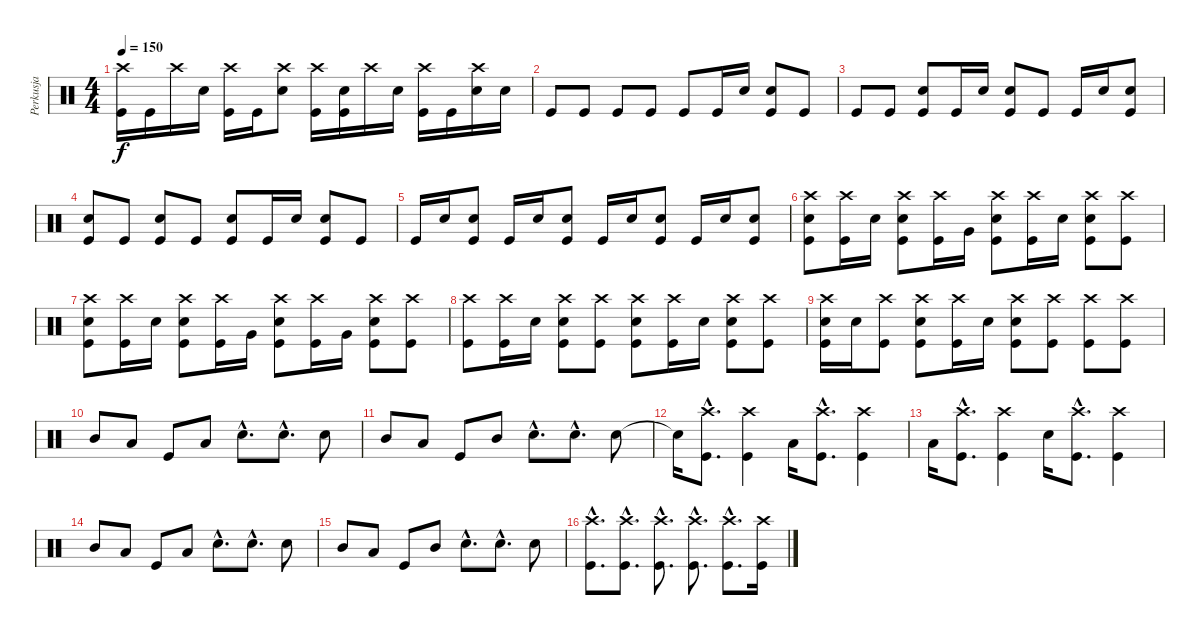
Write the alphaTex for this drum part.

\track ("Perkusja" "Perkusja") {instrument percussion}
\staff {score}
\articulation defaults
\ts (4 4)
\tempo 150
\clef neutral
\ks c
("Crash high (hit)" "Kick (hit)").16{dy f} "Kick (hit)".16 "Crash high (hit)".16 "Snare (hit) 2".16 ("Crash high (hit)" "Kick (hit)").16 "Kick (hit)".16 ("Crash high (hit)" "Snare (hit) 2").8 ("Crash high (hit)" "Kick (hit)").16 ("Snare (hit) 2" "Kick (hit)").16 "Crash high (hit)".16 "Snare (hit) 2".16 ("Crash high (hit)" "Kick (hit)").16 "Kick (hit)".16 ("Crash high (hit)" "Snare (hit) 2").16 "Snare (hit) 2".16 |
"Kick (hit)".8 "Kick (hit)".8 "Kick (hit)".8 "Kick (hit)".8 "Kick (hit)".8 "Kick (hit)".16 "Snare (hit) 2".16 ("Snare (hit) 2" "Kick (hit)").8 "Kick (hit)".8 |
"Kick (hit)".8 "Kick (hit)".8 ("Snare (hit) 2" "Kick (hit)").8 "Kick (hit)".16 "Snare (hit) 2".16 ("Snare (hit) 2" "Kick (hit)").8 "Kick (hit)".8 "Kick (hit)".16 "Snare (hit) 2".16 ("Snare (hit) 2" "Kick (hit)").8 |
("Snare (hit) 2" "Kick (hit)").8 "Kick (hit)".8 ("Snare (hit) 2" "Kick (hit)").8 "Kick (hit)".8 ("Snare (hit) 2" "Kick (hit)").8 "Kick (hit)".16 "Snare (hit) 2".16 ("Snare (hit) 2" "Kick (hit)").8 "Kick (hit)".8 |
"Kick (hit)".16 "Snare (hit) 2".16 ("Snare (hit) 2" "Kick (hit)").8 "Kick (hit)".16 "Snare (hit) 2".16 ("Snare (hit) 2" "Kick (hit)").8 "Kick (hit)".16 "Snare (hit) 2".16 ("Snare (hit) 2" "Kick (hit)").8 "Kick (hit)".16 "Snare (hit) 2".16 ("Snare (hit) 2" "Kick (hit)").8 |
("Crash high (hit)" "Snare (hit) 2" "Kick (hit)").8 ("Crash high (hit)" "Kick (hit)").16 "Snare (hit) 2".16 ("Crash high (hit)" "Snare (hit) 2" "Kick (hit)").8 ("Crash high (hit)" "Kick (hit)").16 "Very Low Tom (hit)".16 ("Crash high (hit)" "Snare (hit) 2" "Kick (hit)").8 ("Crash high (hit)" "Kick (hit)").16 "Snare (hit) 2".16 ("Crash high (hit)" "Snare (hit) 2" "Kick (hit)").8 ("Crash high (hit)" "Kick (hit)").8 |
("Crash high (hit)" "Snare (hit) 2" "Kick (hit)").8 ("Crash high (hit)" "Kick (hit)").16 "Snare (hit) 2".16 ("Crash high (hit)" "Snare (hit) 2" "Kick (hit)").8 ("Crash high (hit)" "Kick (hit)").16 "Very Low Tom (hit)".16 ("Crash high (hit)" "Snare (hit) 2" "Kick (hit)").8 ("Crash high (hit)" "Kick (hit)").16 "Very Low Tom (hit)".16 ("Crash high (hit)" "Snare (hit) 2" "Kick (hit)").8 ("Crash high (hit)" "Kick (hit)").8 |
("Crash high (hit)" "Kick (hit)").8 ("Crash high (hit)" "Kick (hit)").16 "Snare (hit) 2".16 ("Crash high (hit)" "Snare (hit) 2" "Kick (hit)").8 ("Crash high (hit)" "Kick (hit)").8 ("Crash high (hit)" "Snare (hit) 2" "Kick (hit)").8 ("Crash high (hit)" "Kick (hit)").16 "Snare (hit) 2".16 ("Crash high (hit)" "Snare (hit) 2" "Kick (hit)").8 ("Crash high (hit)" "Kick (hit)").8 |
("Crash high (hit)" "Snare (hit) 2" "Kick (hit)").16 "Snare (hit) 2".16 ("Crash high (hit)" "Kick (hit)").8 ("Crash high (hit)" "Snare (hit) 2" "Kick (hit)").8 ("Crash high (hit)" "Kick (hit)").16 "Snare (hit) 2".16 ("Crash high (hit)" "Snare (hit) 2" "Kick (hit)").8 ("Crash high (hit)" "Kick (hit)").8 ("Crash high (hit)" "Kick (hit)").8 ("Crash high (hit)" "Kick (hit)").8 |
"Mid Tom (hit)".8 "Low Floor Tom (hit)".8 "Kick (hit)".8 "Low Floor Tom (hit)".8 "Snare (hit) 2"{hac}.8{d} "Snare (hit) 2"{hac}.8{d} "Snare (hit) 2".8 |
"Mid Tom (hit)".8 "Low Floor Tom (hit)".8 "Kick (hit)".8 "Mid Tom (hit)".8 "Snare (hit) 2"{hac}.8{d} "Snare (hit) 2"{hac}.8{d} "Snare (hit) 2".8 |
"Snare (hit)"{t}.16 ("Crash high (hit)"{hac} "Kick (hit)"{hac}).8{d} ("Crash high (hit)" "Kick (hit)").4 "Low Floor Tom (hit)".16 ("Crash high (hit)"{hac} "Kick (hit)"{hac}).8{d} ("Crash high (hit)" "Kick (hit)").4 |
"Low Floor Tom (hit)".16 ("Crash high (hit)"{hac} "Kick (hit)"{hac}).8{d} ("Crash high (hit)" "Kick (hit)").4 "Snare (hit) 2".16 ("Crash high (hit)"{hac} "Kick (hit)"{hac}).8{d} ("Crash high (hit)" "Kick (hit)").4 |
"Mid Tom (hit)".8 "Low Floor Tom (hit)".8 "Kick (hit)".8 "Low Floor Tom (hit)".8 "Snare (hit) 2"{hac}.8{d} "Snare (hit) 2"{hac}.8{d} "Snare (hit) 2".8 |
"Mid Tom (hit)".8 "Low Floor Tom (hit)".8 "Kick (hit)".8 "Mid Tom (hit)".8 "Snare (hit) 2"{hac}.8{d} "Snare (hit) 2"{hac}.8{d} "Snare (hit) 2".8 |
("Crash high (hit)"{hac} "Kick (hit)"{hac}).8{d} ("Crash high (hit)"{hac} "Kick (hit)"{hac}).8{d} ("Crash high (hit)"{hac} "Kick (hit)"{hac}).8{d} ("Crash high (hit)"{hac} "Kick (hit)"{hac}).8{d} ("Crash high (hit)"{hac} "Kick (hit)"{hac}).8{d} ("Crash high (hit)" "Kick (hit)").16
